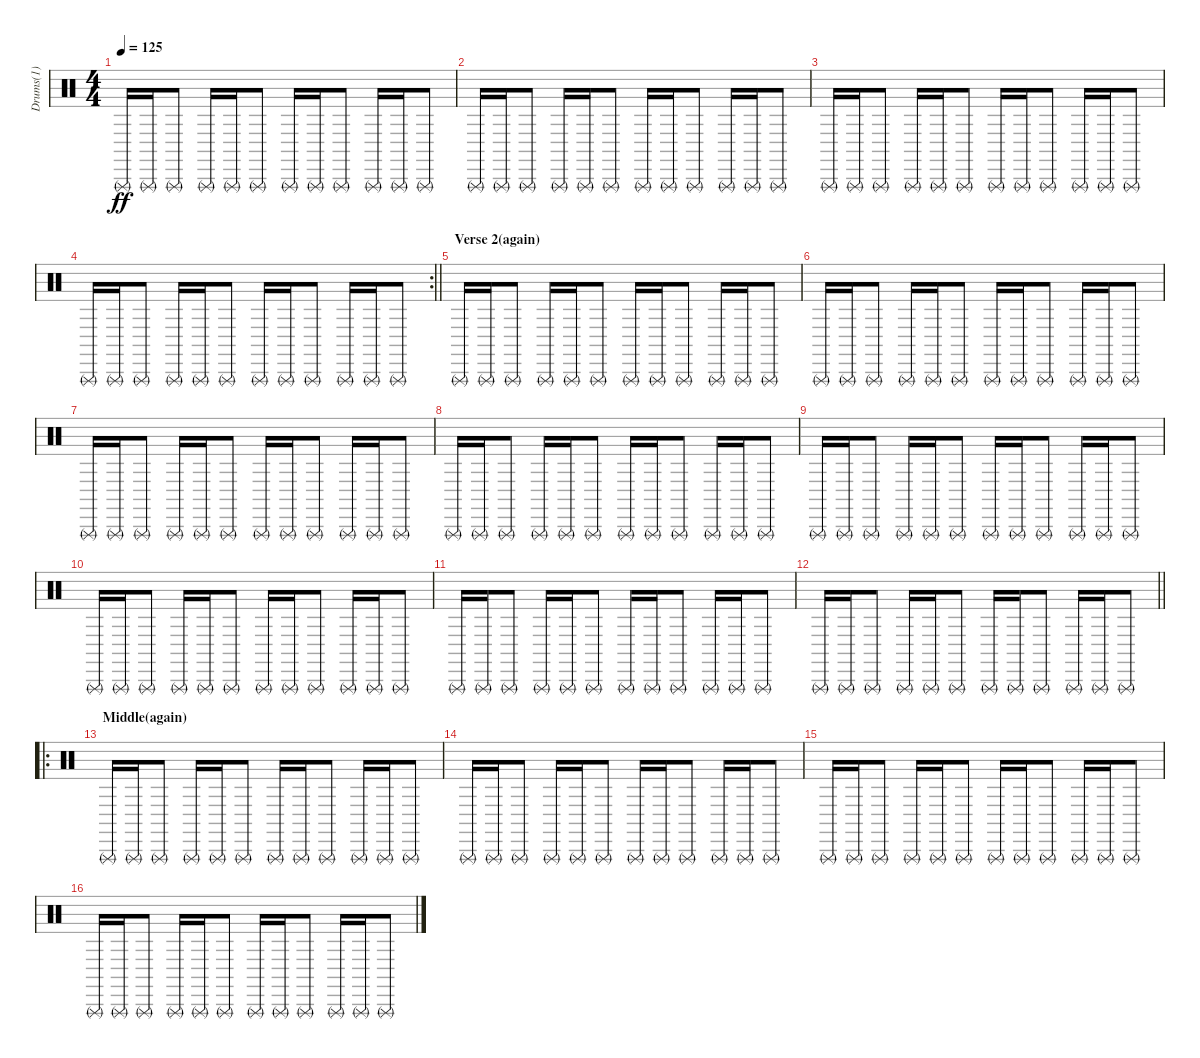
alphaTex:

\track ("Drums(1)" "Drums(1)") {instrument percussion}
\staff {score}
\articulation defaults
\ts (4 4)
\tempo 125
\clef neutral
\ks c "Triangle (rnute)".16{dy ff} "Triangle (rnute)".16 "Triangle (rnute)".8 "Triangle (rnute)".16 "Triangle (rnute)".16 "Triangle (rnute)".8 "Triangle (rnute)".16 "Triangle (rnute)".16 "Triangle (rnute)".8 "Triangle (rnute)".16 "Triangle (rnute)".16 "Triangle (rnute)".8
|
"Triangle (rnute)".16 "Triangle (rnute)".16 "Triangle (rnute)".8 "Triangle (rnute)".16 "Triangle (rnute)".16 "Triangle (rnute)".8 "Triangle (rnute)".16 "Triangle (rnute)".16 "Triangle (rnute)".8 "Triangle (rnute)".16 "Triangle (rnute)".16 "Triangle (rnute)".8 |
"Triangle (rnute)".16 "Triangle (rnute)".16 "Triangle (rnute)".8 "Triangle (rnute)".16 "Triangle (rnute)".16 "Triangle (rnute)".8 "Triangle (rnute)".16 "Triangle (rnute)".16 "Triangle (rnute)".8 "Triangle (rnute)".16 "Triangle (rnute)".16 "Triangle (rnute)".8 |
\rc 2
\barLineRight lightlight "Triangle (rnute)".16 "Triangle (rnute)".16 "Triangle (rnute)".8 "Triangle (rnute)".16 "Triangle (rnute)".16 "Triangle (rnute)".8 "Triangle (rnute)".16 "Triangle (rnute)".16 "Triangle (rnute)".8 "Triangle (rnute)".16 "Triangle (rnute)".16 "Triangle (rnute)".8
|
\section ("" "Verse 2(again)")
"Triangle (rnute)".16 "Triangle (rnute)".16 "Triangle (rnute)".8 "Triangle (rnute)".16 "Triangle (rnute)".16 "Triangle (rnute)".8 "Triangle (rnute)".16 "Triangle (rnute)".16 "Triangle (rnute)".8 "Triangle (rnute)".16 "Triangle (rnute)".16 "Triangle (rnute)".8 |
"Triangle (rnute)".16 "Triangle (rnute)".16 "Triangle (rnute)".8 "Triangle (rnute)".16 "Triangle (rnute)".16 "Triangle (rnute)".8 "Triangle (rnute)".16 "Triangle (rnute)".16 "Triangle (rnute)".8 "Triangle (rnute)".16 "Triangle (rnute)".16 "Triangle (rnute)".8 |
"Triangle (rnute)".16 "Triangle (rnute)".16 "Triangle (rnute)".8 "Triangle (rnute)".16 "Triangle (rnute)".16 "Triangle (rnute)".8 "Triangle (rnute)".16 "Triangle (rnute)".16 "Triangle (rnute)".8 "Triangle (rnute)".16 "Triangle (rnute)".16 "Triangle (rnute)".8 |
"Triangle (rnute)".16 "Triangle (rnute)".16 "Triangle (rnute)".8 "Triangle (rnute)".16 "Triangle (rnute)".16 "Triangle (rnute)".8 "Triangle (rnute)".16 "Triangle (rnute)".16 "Triangle (rnute)".8 "Triangle (rnute)".16 "Triangle (rnute)".16 "Triangle (rnute)".8 |
"Triangle (rnute)".16 "Triangle (rnute)".16 "Triangle (rnute)".8 "Triangle (rnute)".16 "Triangle (rnute)".16 "Triangle (rnute)".8 "Triangle (rnute)".16 "Triangle (rnute)".16 "Triangle (rnute)".8 "Triangle (rnute)".16 "Triangle (rnute)".16 "Triangle (rnute)".8 |
"Triangle (rnute)".16 "Triangle (rnute)".16 "Triangle (rnute)".8 "Triangle (rnute)".16 "Triangle (rnute)".16 "Triangle (rnute)".8 "Triangle (rnute)".16 "Triangle (rnute)".16 "Triangle (rnute)".8 "Triangle (rnute)".16 "Triangle (rnute)".16 "Triangle (rnute)".8 |
"Triangle (rnute)".16 "Triangle (rnute)".16 "Triangle (rnute)".8 "Triangle (rnute)".16 "Triangle (rnute)".16 "Triangle (rnute)".8 "Triangle (rnute)".16 "Triangle (rnute)".16 "Triangle (rnute)".8 "Triangle (rnute)".16 "Triangle (rnute)".16 "Triangle (rnute)".8 |
\barLineRight lightlight "Triangle (rnute)".16 "Triangle (rnute)".16 "Triangle (rnute)".8 "Triangle (rnute)".16 "Triangle (rnute)".16 "Triangle (rnute)".8 "Triangle (rnute)".16 "Triangle (rnute)".16 "Triangle (rnute)".8 "Triangle (rnute)".16 "Triangle (rnute)".16 "Triangle (rnute)".8
|
\ro
\section ("" "Middle(again)")
"Triangle (rnute)".16{volume 16} "Triangle (rnute)".16 "Triangle (rnute)".8 "Triangle (rnute)".16 "Triangle (rnute)".16 "Triangle (rnute)".8 "Triangle (rnute)".16 "Triangle (rnute)".16 "Triangle (rnute)".8 "Triangle (rnute)".16 "Triangle (rnute)".16 "Triangle (rnute)".8 |
"Triangle (rnute)".16 "Triangle (rnute)".16 "Triangle (rnute)".8 "Triangle (rnute)".16 "Triangle (rnute)".16 "Triangle (rnute)".8 "Triangle (rnute)".16 "Triangle (rnute)".16 "Triangle (rnute)".8 "Triangle (rnute)".16 "Triangle (rnute)".16 "Triangle (rnute)".8 |
"Triangle (rnute)".16 "Triangle (rnute)".16 "Triangle (rnute)".8 "Triangle (rnute)".16 "Triangle (rnute)".16 "Triangle (rnute)".8 "Triangle (rnute)".16 "Triangle (rnute)".16 "Triangle (rnute)".8 "Triangle (rnute)".16 "Triangle (rnute)".16 "Triangle (rnute)".8 |
"Triangle (rnute)".16 "Triangle (rnute)".16 "Triangle (rnute)".8 "Triangle (rnute)".16 "Triangle (rnute)".16 "Triangle (rnute)".8 "Triangle (rnute)".16 "Triangle (rnute)".16 "Triangle (rnute)".8 "Triangle (rnute)".16 "Triangle (rnute)".16 "Triangle (rnute)".8
